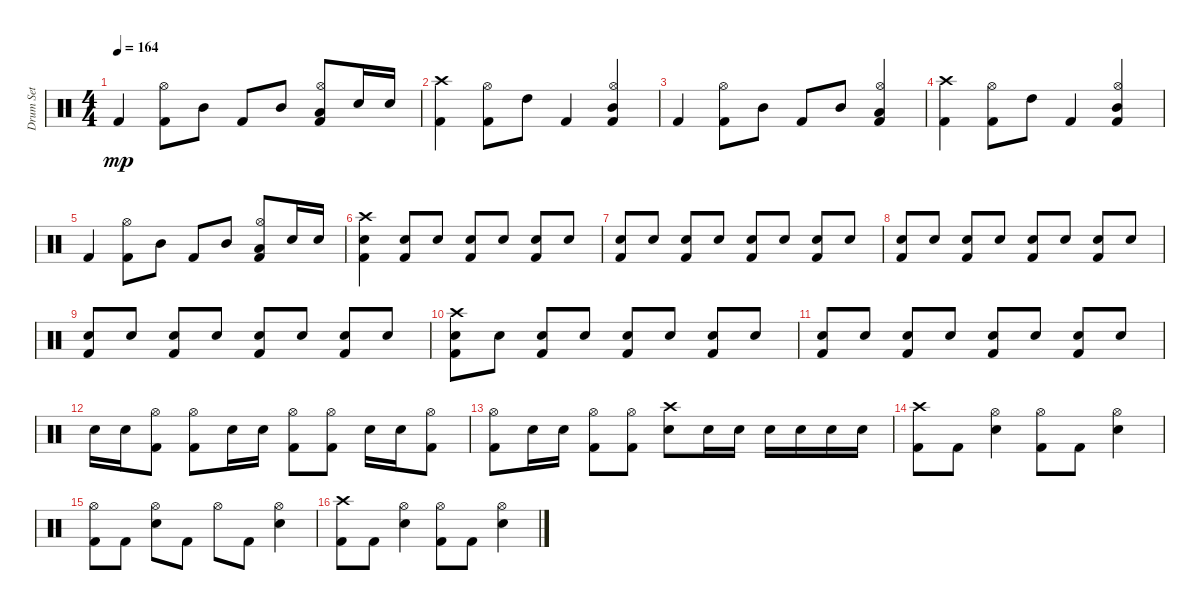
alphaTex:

\track ("Drum Set" "Drum Set") {instrument percussion}
\staff {score}
\articulation defaults
\ts (4 4)
\tempo 164
\clef neutral
\ks c "Kick (hit) 2".4{dy mp}
("Kick (hit) 2" "Hi-Hat (open)").8 "Mid Tom (hit)".8 "Kick (hit) 2".8 "Mid Tom (hit)".8 ("Kick (hit) 2" "Low Tom (hit)" "Hi-Hat (open)").8 "Snare (hit) 2".16 "Snare (hit) 2".16 |
("Kick (hit) 2" "Crash high (hit)").4 ("Kick (hit) 2" "Hi-Hat (open)").8 "High Tom (hit)".8 "Kick (hit) 2".4 ("Kick (hit) 2" "Mid Tom (hit)" "Hi-Hat (open)").4 |
"Kick (hit) 2".4 ("Kick (hit) 2" "Hi-Hat (open)").8 "Mid Tom (hit)".8 "Kick (hit) 2".8 "Mid Tom (hit)".8 ("Kick (hit) 2" "Low Tom (hit)" "Hi-Hat (open)").4 |
("Kick (hit) 2" "Crash high (hit)").4 ("Kick (hit) 2" "Hi-Hat (open)").8 "High Tom (hit)".8 "Kick (hit) 2".4 ("Kick (hit) 2" "Mid Tom (hit)" "Hi-Hat (open)").4 |
"Kick (hit) 2".4 ("Kick (hit) 2" "Hi-Hat (open)").8 "Mid Tom (hit)".8 "Kick (hit) 2".8 "Mid Tom (hit)".8 ("Kick (hit) 2" "Low Tom (hit)" "Hi-Hat (open)").8 "Snare (hit) 2".16 "Snare (hit) 2".16 |
("Kick (hit) 2" "Snare (hit) 2" "Crash high (hit)").4 ("Kick (hit) 2" "Snare (hit) 2").8 "Snare (hit) 2".8 ("Kick (hit) 2" "Snare (hit) 2").8 "Snare (hit) 2".8 ("Kick (hit) 2" "Snare (hit) 2").8 "Snare (hit) 2".8 |
("Kick (hit) 2" "Snare (hit) 2").8 "Snare (hit) 2".8 ("Kick (hit) 2" "Snare (hit) 2").8 "Snare (hit) 2".8 ("Kick (hit) 2" "Snare (hit) 2").8 "Snare (hit) 2".8 ("Kick (hit) 2" "Snare (hit) 2").8 "Snare (hit) 2".8 |
("Kick (hit) 2" "Snare (hit) 2").8 "Snare (hit) 2".8 ("Kick (hit) 2" "Snare (hit) 2").8 "Snare (hit) 2".8 ("Kick (hit) 2" "Snare (hit) 2").8 "Snare (hit) 2".8 ("Kick (hit) 2" "Snare (hit) 2").8 "Snare (hit) 2".8 |
("Kick (hit) 2" "Snare (hit) 2").8 "Snare (hit) 2".8 ("Kick (hit) 2" "Snare (hit) 2").8 "Snare (hit) 2".8 ("Kick (hit) 2" "Snare (hit) 2").8 "Snare (hit) 2".8 ("Kick (hit) 2" "Snare (hit) 2").8 "Snare (hit) 2".8 |
("Kick (hit) 2" "Snare (hit) 2" "Crash high (hit)").8 "Snare (hit) 2".8 ("Kick (hit) 2" "Snare (hit) 2").8 "Snare (hit) 2".8 ("Kick (hit) 2" "Snare (hit) 2").8 "Snare (hit) 2".8 ("Kick (hit) 2" "Snare (hit) 2").8 "Snare (hit) 2".8 |
("Kick (hit) 2" "Snare (hit) 2").8 "Snare (hit) 2".8 ("Kick (hit) 2" "Snare (hit) 2").8 "Snare (hit) 2".8 ("Kick (hit) 2" "Snare (hit) 2").8 "Snare (hit) 2".8 ("Kick (hit) 2" "Snare (hit) 2").8 "Snare (hit) 2".8 |
"Snare (hit) 2".16 "Snare (hit) 2".16 ("Kick (hit) 2" "Hi-Hat (open)").8 ("Kick (hit) 2" "Hi-Hat (open)").8 "Snare (hit) 2".16 "Snare (hit) 2".16 ("Kick (hit) 2" "Hi-Hat (open)").8 ("Kick (hit) 2" "Hi-Hat (open)").8 "Snare (hit) 2".16 "Snare (hit) 2".16 ("Kick (hit) 2" "Hi-Hat (open)").8 |
("Kick (hit) 2" "Hi-Hat (open)").8 "Snare (hit) 2".16 "Snare (hit) 2".16 ("Kick (hit) 2" "Hi-Hat (open)").8 ("Kick (hit) 2" "Hi-Hat (open)").8 ("Snare (hit) 2" "Crash high (hit)").8 "Snare (hit) 2".16 "Snare (hit) 2".16 "Snare (hit) 2".16 "Snare (hit) 2".16 "Snare (hit) 2".16 "Snare (hit) 2".16 |
("Kick (hit) 2" "Crash high (hit)").8 "Kick (hit) 2".8 ("Snare (hit) 2" "Hi-Hat (open)").4 ("Kick (hit) 2" "Hi-Hat (open)").8 "Kick (hit) 2".8 ("Snare (hit) 2" "Hi-Hat (open)").4 |
("Kick (hit) 2" "Hi-Hat (open)").8 "Kick (hit) 2".8 ("Snare (hit) 2" "Hi-Hat (open)").8 "Kick (hit) 2".8 "Hi-Hat (open)".8 "Kick (hit) 2".8 ("Snare (hit) 2" "Hi-Hat (open)").4 |
("Kick (hit) 2" "Crash high (hit)").8 "Kick (hit) 2".8 ("Snare (hit) 2" "Hi-Hat (open)").4 ("Kick (hit) 2" "Hi-Hat (open)").8 "Kick (hit) 2".8 ("Snare (hit) 2" "Hi-Hat (open)").4
